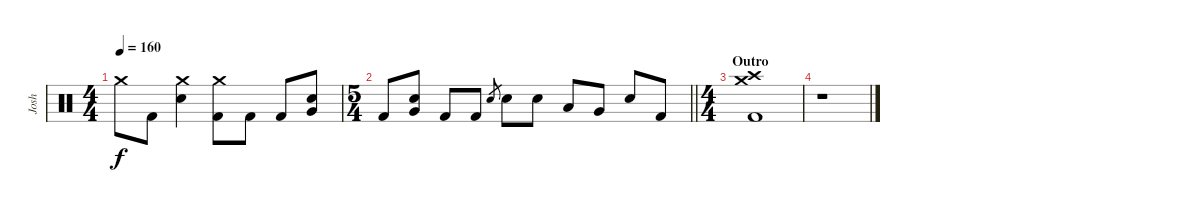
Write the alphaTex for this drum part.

\track ("Josh" "Josh") {instrument percussion}
\staff {score}
\articulation defaults
\ts (4 4)
\tempo 160
\clef neutral
\ks c "Crash medium (hit)".8{dy f} "Kick (hit) 2".8
("Crash medium (hit)" "Electric Snare (hit)").4 ("Crash medium (hit)" "Kick (hit) 2").8 "Kick (hit) 2".8 "Kick (hit) 2".8 ("Very Low Tom (hit)" "Electric Snare (hit)").8 |
\ts (5 4)
\barLineRight lightlight "Kick (hit) 2".8
("Very Low Tom (hit)" "Electric Snare (hit)").8 "Kick (hit) 2".8 "Kick (hit) 2".8 "Electric Snare (hit)".8{gr} "Electric Snare (hit)".8 "Electric Snare (hit)".8 "Low Tom (hit)".8 "Very Low Tom (hit)".8 "Electric Snare (hit)".8 "Kick (hit) 2".8 |
\ts (4 4)
\section ("" "Outro")
("Crash medium (hit)" "Crash high (hit)" "Kick (hit) 2").1 |
r.1
